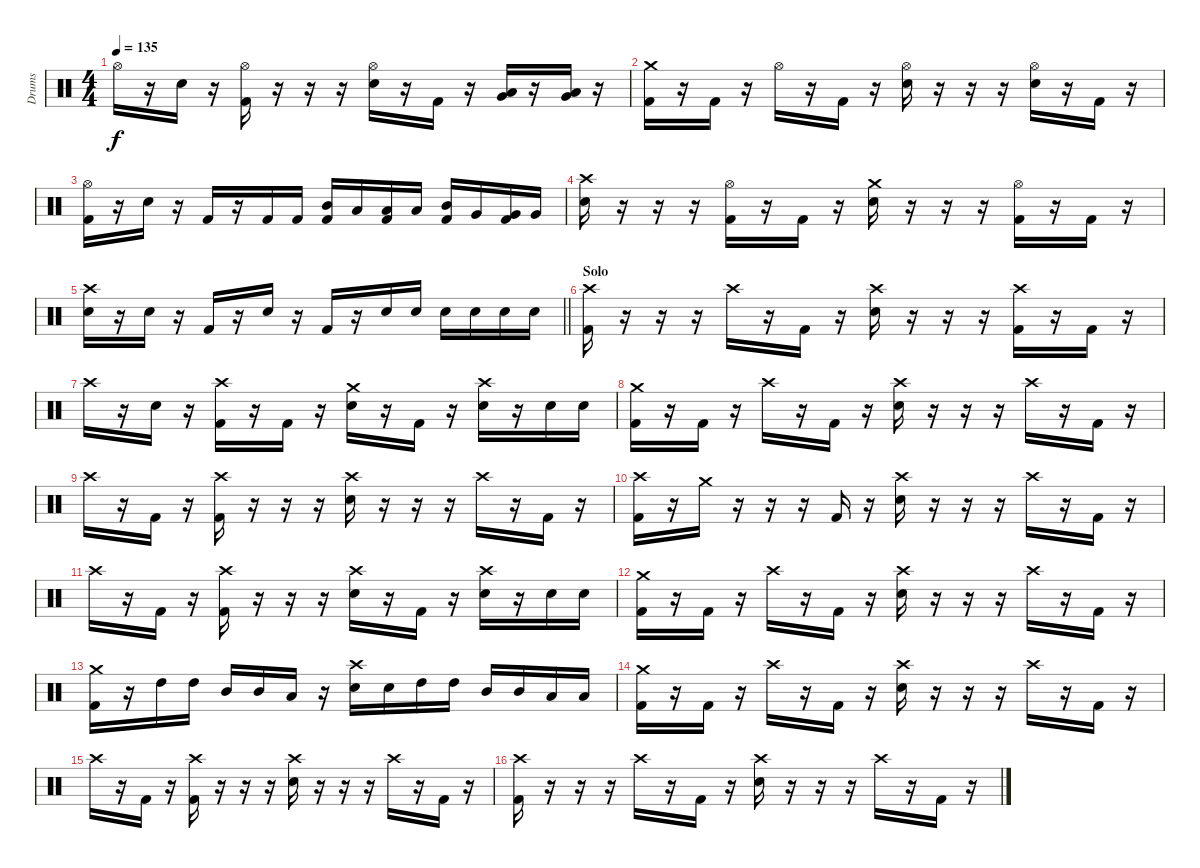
\track ("Drums" "Drums") {instrument percussion}
\staff {score}
\articulation defaults
\ts (4 4)
\tempo 135
\clef neutral
\ks c "Hi-Hat (open)".16{dy f}
r.16 "Snare (hit) 2".16 r.16 ("Hi-Hat (open)" "Kick (hit) 2").16 r.16 r.16 r.16 ("Hi-Hat (open)" "Snare (hit) 2").16 r.16 "Kick (hit) 2".16 r.16 ("Low Tom (hit)" "Very Low Tom (hit)").16 r.16 ("Low Tom (hit)" "Very Low Tom (hit)").16 r.16 |
("Crash medium (hit)" "Kick (hit) 2").16 r.16 "Kick (hit) 2".16 r.16 "Hi-Hat (open)".16 r.16 "Kick (hit) 2".16 r.16 ("Hi-Hat (open)" "Snare (hit) 2").16 r.16 r.16 r.16 ("Hi-Hat (open)" "Snare (hit) 2").16 r.16 "Kick (hit) 2".16 r.16 |
("Hi-Hat (open)" "Kick (hit) 2").16 r.16 "Snare (hit) 2".16 r.16 "Kick (hit) 2".16 r.16 "Kick (hit) 2".16 "Kick (hit) 2".16 ("Mid Tom (hit)" "Kick (hit) 2").16 "Low Tom (hit)".16 ("Low Tom (hit)" "Kick (hit) 2").16 "Low Tom (hit)".16 ("Mid Tom (hit)" "Kick (hit) 2").16 "Very Low Tom (hit)".16 ("Very Low Tom (hit)" "Kick (hit) 2").16 "Very Low Tom (hit)".16 |
("Crash high (hit)" "Snare (hit) 2").16 r.16 r.16 r.16 ("Hi-Hat (open)" "Kick (hit) 2").16 r.16 "Kick (hit) 2".16 r.16 ("Crash medium (hit)" "Snare (hit) 2").16 r.16 r.16 r.16 ("Hi-Hat (open)" "Kick (hit) 2").16 r.16 "Kick (hit) 2".16 r.16 |
\barLineRight lightlight
("Crash high (hit)" "Snare (hit) 2").16 r.16 "Snare (hit) 2".16 r.16 "Kick (hit) 2".16 r.16 "Snare (hit) 2".16 r.16 "Kick (hit) 2".16 r.16 "Snare (hit) 2".16 "Snare (hit) 2".16 "Snare (hit) 2".16 "Snare (hit) 2".16 "Snare (hit) 2".16 "Snare (hit) 2".16 |
\section ("" "Solo")
("Crash high (hit)" "Kick (hit) 2").16 r.16 r.16 r.16 "Crash high (hit)".16 r.16 "Kick (hit) 2".16 r.16 ("Crash high (hit)" "Snare (hit) 2").16 r.16 r.16 r.16 ("Crash high (hit)" "Kick (hit) 2").16 r.16 "Kick (hit) 2".16 r.16 |
"Crash high (hit)".16 r.16 "Snare (hit) 2".16 r.16 ("Crash high (hit)" "Kick (hit) 2").16 r.16 "Kick (hit) 2".16 r.16 ("Crash medium (hit)" "Snare (hit) 2").16 r.16 "Kick (hit) 2".16 r.16 ("Crash high (hit)" "Snare (hit) 2").16 r.16 "Snare (hit) 2".16 "Snare (hit) 2".16 |
("Crash medium (hit)" "Kick (hit) 2").16 r.16 "Kick (hit) 2".16 r.16 "Crash high (hit)".16 r.16 "Kick (hit) 2".16 r.16 ("Crash high (hit)" "Snare (hit) 2").16 r.16 r.16 r.16 "Crash high (hit)".16 r.16 "Kick (hit) 2".16 r.16 |
"Crash high (hit)".16 r.16 "Kick (hit) 2".16 r.16 ("Crash high (hit)" "Kick (hit) 2").16 r.16 r.16 r.16 ("Crash high (hit)" "Snare (hit) 2").16 r.16 r.16 r.16 "Crash high (hit)".16 r.16 "Kick (hit) 2".16 r.16 |
("Crash high (hit)" "Kick (hit) 2").16 r.16 "Crash medium (hit)".16 r.16 r.16 r.16 "Kick (hit) 2".16 r.16 ("Crash high (hit)" "Snare (hit) 2").16 r.16 r.16 r.16 "Crash high (hit)".16 r.16 "Kick (hit) 2".16 r.16 |
"Crash high (hit)".16 r.16 "Kick (hit) 2".16 r.16 ("Crash high (hit)" "Kick (hit) 2").16 r.16 r.16 r.16 ("Crash high (hit)" "Snare (hit) 2").16 r.16 "Kick (hit) 2".16 r.16 ("Crash high (hit)" "Snare (hit) 2").16 r.16 "Snare (hit) 2".16 "Snare (hit) 2".16 |
("Crash medium (hit)" "Kick (hit) 2").16 r.16 "Kick (hit) 2".16 r.16 "Crash high (hit)".16 r.16 "Kick (hit) 2".16 r.16 ("Crash high (hit)" "Snare (hit) 2").16 r.16 r.16 r.16 "Crash high (hit)".16 r.16 "Kick (hit) 2".16 r.16 |
("Crash medium (hit)" "Kick (hit) 2").16 r.16 "High Tom (hit)".16 "High Tom (hit)".16 "Mid Tom (hit)".16 "Mid Tom (hit)".16 "Low Tom (hit)".16 r.16 ("Crash high (hit)" "Snare (hit) 2").16 "Snare (hit) 2".16 "High Tom (hit)".16 "High Tom (hit)".16 "Mid Tom (hit)".16 "Mid Tom (hit)".16 "Low Tom (hit)".16 "Low Tom (hit)".16 |
("Crash medium (hit)" "Kick (hit) 2").16 r.16 "Kick (hit) 2".16 r.16 "Crash high (hit)".16 r.16 "Kick (hit) 2".16 r.16 ("Crash high (hit)" "Snare (hit) 2").16 r.16 r.16 r.16 "Crash high (hit)".16 r.16 "Kick (hit) 2".16 r.16 |
"Crash high (hit)".16 r.16 "Kick (hit) 2".16 r.16 ("Crash high (hit)" "Kick (hit) 2").16 r.16 r.16 r.16 ("Crash high (hit)" "Snare (hit) 2").16 r.16 r.16 r.16 "Crash high (hit)".16 r.16 "Kick (hit) 2".16 r.16 |
("Crash high (hit)" "Kick (hit) 2").16 r.16 r.16 r.16 "Crash high (hit)".16 r.16 "Kick (hit) 2".16 r.16 ("Crash high (hit)" "Snare (hit) 2").16 r.16 r.16 r.16 "Crash high (hit)".16 r.16 "Kick (hit) 2".16 r.16
